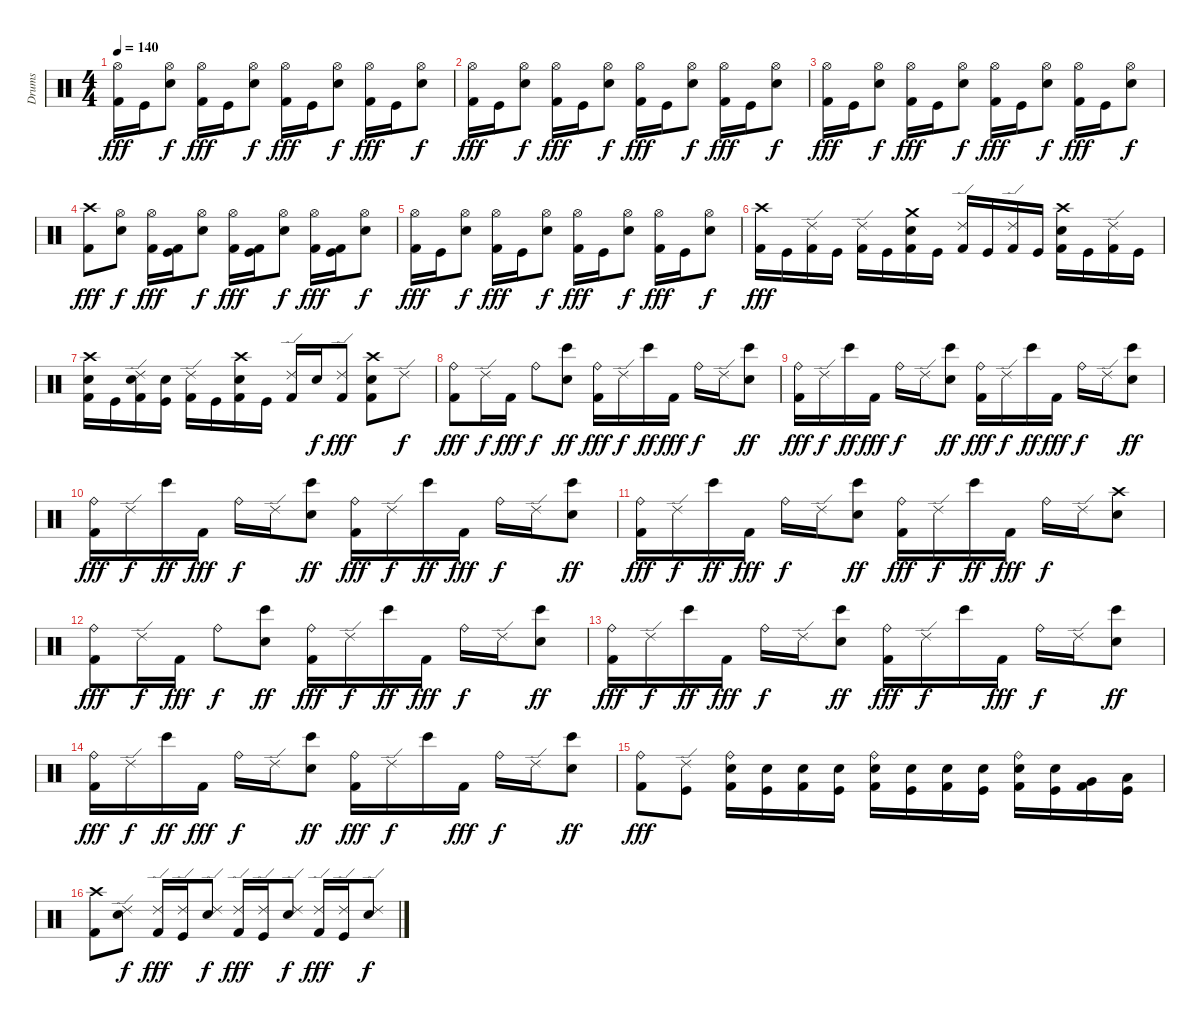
\track ("Drums" "Drums") {instrument percussion}
\staff {score}
\articulation defaults
\ts (4 4)
\tempo 140
\clef neutral
\ks c
("Hi-Hat (open)" "Kick (hit) 2").16{dy fff} "Kick (hit)".16 ("Hi-Hat (open)" "Electric Snare (hit)").8{dy f} ("Hi-Hat (open)" "Kick (hit) 2").16{dy fff} "Kick (hit)".16 ("Hi-Hat (open)" "Electric Snare (hit)").8{dy f} ("Hi-Hat (open)" "Kick (hit) 2").16{dy fff} "Kick (hit)".16 ("Hi-Hat (open)" "Electric Snare (hit)").8{dy f} ("Hi-Hat (open)" "Kick (hit) 2").16{dy fff} "Kick (hit)".16 ("Hi-Hat (open)" "Electric Snare (hit)").8{dy f} |
("Hi-Hat (open)" "Kick (hit) 2").16{dy fff} "Kick (hit)".16 ("Hi-Hat (open)" "Electric Snare (hit)").8{dy f} ("Hi-Hat (open)" "Kick (hit) 2").16{dy fff} "Kick (hit)".16 ("Hi-Hat (open)" "Electric Snare (hit)").8{dy f} ("Hi-Hat (open)" "Kick (hit) 2").16{dy fff} "Kick (hit)".16 ("Hi-Hat (open)" "Electric Snare (hit)").8{dy f} ("Hi-Hat (open)" "Kick (hit) 2").16{dy fff} "Kick (hit)".16 ("Hi-Hat (open)" "Electric Snare (hit)").8{dy f} |
("Hi-Hat (open)" "Kick (hit) 2").16{dy fff} "Kick (hit)".16 ("Hi-Hat (open)" "Electric Snare (hit)").8{dy f} ("Hi-Hat (open)" "Kick (hit) 2").16{dy fff} "Kick (hit)".16 ("Hi-Hat (open)" "Electric Snare (hit)").8{dy f} ("Hi-Hat (open)" "Kick (hit) 2").16{dy fff} "Kick (hit)".16 ("Hi-Hat (open)" "Electric Snare (hit)").8{dy f} ("Hi-Hat (open)" "Kick (hit) 2").16{dy fff} "Kick (hit)".16 ("Hi-Hat (open)" "Electric Snare (hit)").8{dy f} |
("Crash high (hit)" "Kick (hit) 2").8{dy fff} ("Hi-Hat (open)" "Electric Snare (hit)").8{dy f} ("Hi-Hat (open)" "Kick (hit) 2").16{dy fff} ("Kick (hit) 2" "Kick (hit)").16 ("Hi-Hat (open)" "Electric Snare (hit)").8{dy f} ("Hi-Hat (open)" "Kick (hit) 2").16{dy fff} ("Kick (hit) 2" "Kick (hit)").16 ("Hi-Hat (open)" "Electric Snare (hit)").8{dy f} ("Hi-Hat (open)" "Kick (hit) 2").16{dy fff} ("Kick (hit) 2" "Kick (hit)").16 ("Hi-Hat (open)" "Electric Snare (hit)").8{dy f} |
("Hi-Hat (open)" "Kick (hit) 2").16{dy fff} "Kick (hit)".16 ("Hi-Hat (open)" "Electric Snare (hit)").8{dy f} ("Hi-Hat (open)" "Kick (hit) 2").16{dy fff} "Kick (hit)".16 ("Hi-Hat (open)" "Electric Snare (hit)").8{dy f} ("Hi-Hat (open)" "Kick (hit) 2").16{dy fff} "Kick (hit)".16 ("Hi-Hat (open)" "Electric Snare (hit)").8{dy f} ("Hi-Hat (open)" "Kick (hit) 2").16{dy fff} "Kick (hit)".16 ("Hi-Hat (open)" "Electric Snare (hit)").8{dy f} |
("Crash high (hit)" "Kick (hit) 2").16{dy fff} "Kick (hit)".16 ("Ride (edge) 2" "Kick (hit) 2").16 "Kick (hit)".16 ("Ride (edge) 2" "Kick (hit) 2").16 "Kick (hit)".16 ("Crash medium (hit)" "Electric Snare (hit)" "Kick (hit) 2").16 "Kick (hit)".16 ("Ride (edge) 2" "Kick (hit) 2").16 "Kick (hit)".16 ("Ride (edge) 2" "Kick (hit) 2").16 "Kick (hit)".16 ("Crash high (hit)" "Electric Snare (hit)" "Kick (hit) 2").16 "Kick (hit)".16 ("Ride (edge) 2" "Kick (hit) 2").16 "Kick (hit)".16 |
("Crash high (hit)" "Electric Snare (hit)" "Kick (hit) 2").16 "Kick (hit)".16 ("Ride (edge) 2" "Electric Snare (hit)" "Kick (hit) 2").16 ("Electric Snare (hit)" "Kick (hit)").16 ("Ride (edge) 2" "Kick (hit) 2").16 "Kick (hit)".16 ("Crash high (hit)" "Electric Snare (hit)" "Kick (hit) 2").16 "Kick (hit)".16 ("Ride (edge) 2" "Kick (hit) 2").16 "Electric Snare (hit)".16{dy f} ("Ride (edge) 2" "Kick (hit) 2").8{dy fff} ("Crash high (hit)" "Electric Snare (hit)" "Kick (hit) 2").8 "Ride (edge) 2".8{dy f} |
("Ride (bell)" "Kick (hit) 2").8{dy fff} "Ride (edge) 2".16{dy f} "Kick (hit) 2".16{dy fff} "Ride (bell)".8{dy f} ("Bongo High (hit)" "Electric Snare (hit)").8{dy ff} ("Ride (bell)" "Kick (hit) 2").16{dy fff} "Ride (edge) 2".16{dy f} "Bongo High (hit)".16{dy ff} "Kick (hit) 2".16{dy fff} "Ride (bell)".16{dy f} "Ride (edge) 2".16 ("Bongo High (hit)" "Electric Snare (hit)").8{dy ff} |
("Ride (bell)" "Kick (hit) 2").16{dy fff} "Ride (edge) 2".16{dy f} "Bongo High (hit)".16{dy ff} "Kick (hit) 2".16{dy fff} "Ride (bell)".16{dy f} "Ride (edge) 2".16 ("Bongo High (hit)" "Electric Snare (hit)").8{dy ff} ("Ride (bell)" "Kick (hit) 2").16{dy fff} "Ride (edge) 2".16{dy f} "Bongo High (hit)".16{dy ff} "Kick (hit) 2".16{dy fff} "Ride (bell)".16{dy f} "Ride (edge) 2".16 ("Bongo High (hit)" "Electric Snare (hit)").8{dy ff} |
("Ride (bell)" "Kick (hit) 2").16{dy fff} "Ride (edge) 2".16{dy f} "Bongo High (hit)".16{dy ff} "Kick (hit) 2".16{dy fff} "Ride (bell)".16{dy f} "Ride (edge) 2".16 ("Bongo High (hit)" "Electric Snare (hit)").8{dy ff} ("Ride (bell)" "Kick (hit) 2").16{dy fff} "Ride (edge) 2".16{dy f} "Bongo High (hit)".16{dy ff} "Kick (hit) 2".16{dy fff} "Ride (bell)".16{dy f} "Ride (edge) 2".16 ("Bongo High (hit)" "Electric Snare (hit)").8{dy ff} |
("Ride (bell)" "Kick (hit) 2").16{dy fff} "Ride (edge) 2".16{dy f} "Bongo High (hit)".16{dy ff} "Kick (hit) 2".16{dy fff} "Ride (bell)".16{dy f} "Ride (edge) 2".16 ("Bongo High (hit)" "Electric Snare (hit)").8{dy ff} ("Ride (bell)" "Kick (hit) 2").16{dy fff} "Ride (edge) 2".16{dy f} "Bongo High (hit)".16{dy ff} "Kick (hit) 2".16{dy fff} "Ride (bell)".16{dy f} "Ride (edge) 2".16 ("Crash high (hit)" "Electric Snare (hit)").8 |
("Ride (bell)" "Kick (hit) 2").8{dy fff} "Ride (edge) 2".16{dy f} "Kick (hit) 2".16{dy fff} "Ride (bell)".8{dy f} ("Bongo High (hit)" "Electric Snare (hit)").8{dy ff} ("Ride (bell)" "Kick (hit) 2").16{dy fff} "Ride (edge) 2".16{dy f} "Bongo High (hit)".16{dy ff} "Kick (hit) 2".16{dy fff} "Ride (bell)".16{dy f} "Ride (edge) 2".16 ("Bongo High (hit)" "Electric Snare (hit)").8{dy ff} |
("Ride (bell)" "Kick (hit) 2").16{dy fff} "Ride (edge) 2".16{dy f} "Bongo High (hit)".16{dy ff} "Kick (hit) 2".16{dy fff} "Ride (bell)".16{dy f} "Ride (edge) 2".16 ("Bongo High (hit)" "Electric Snare (hit)").8{dy ff} ("Ride (bell)" "Kick (hit) 2").16{dy fff} "Ride (edge) 2".16{dy f} "Bongo High (hit)".16 "Kick (hit) 2".16{dy fff} "Ride (bell)".16{dy f} "Ride (edge) 2".16 ("Bongo High (hit)" "Electric Snare (hit)").8{dy ff} |
("Ride (bell)" "Kick (hit) 2").16{dy fff} "Ride (edge) 2".16{dy f} "Bongo High (hit)".16{dy ff} "Kick (hit) 2".16{dy fff} "Ride (bell)".16{dy f} "Ride (edge) 2".16 ("Bongo High (hit)" "Electric Snare (hit)").8{dy ff} ("Ride (bell)" "Kick (hit) 2").16{dy fff} "Ride (edge) 2".16{dy f} "Bongo High (hit)".16 "Kick (hit) 2".16{dy fff} "Ride (bell)".16{dy f} "Ride (edge) 2".16 ("Bongo High (hit)" "Electric Snare (hit)").8{dy ff} |
("Ride (bell)" "Kick (hit) 2").8{dy fff} ("Ride (edge) 2" "Kick (hit)").8 ("Ride (bell)" "Electric Snare (hit)" "Kick (hit) 2").16 ("Electric Snare (hit)" "Kick (hit)").16 ("Electric Snare (hit)" "Kick (hit) 2").16 ("Electric Snare (hit)" "Kick (hit)").16 ("Ride (bell)" "Electric Snare (hit)" "Kick (hit) 2").16 ("Electric Snare (hit)" "Kick (hit)").16 ("Electric Snare (hit)" "Kick (hit) 2").16 ("Electric Snare (hit)" "Kick (hit)").16 ("Ride (bell)" "Electric Snare (hit)" "Kick (hit) 2").16 ("Electric Snare (hit)" "Kick (hit)").16 ("Very Low Tom (hit)" "Kick (hit) 2").16 ("Low Floor Tom (hit)" "Kick (hit)").16 |
("Crash high (hit)" "Kick (hit) 2").8 ("Ride (edge) 2" "Electric Snare (hit)").8{dy f} ("Ride (edge) 2" "Kick (hit) 2").16{dy fff} ("Ride (edge) 2" "Kick (hit)").16 ("Ride (edge) 2" "Electric Snare (hit)").8{dy f} ("Ride (edge) 2" "Kick (hit) 2").16{dy fff} ("Ride (edge) 2" "Kick (hit)").16 ("Ride (edge) 2" "Electric Snare (hit)").8{dy f} ("Ride (edge) 2" "Kick (hit) 2").16{dy fff} ("Ride (edge) 2" "Kick (hit)").16 ("Ride (edge) 2" "Electric Snare (hit)").8{dy f}
